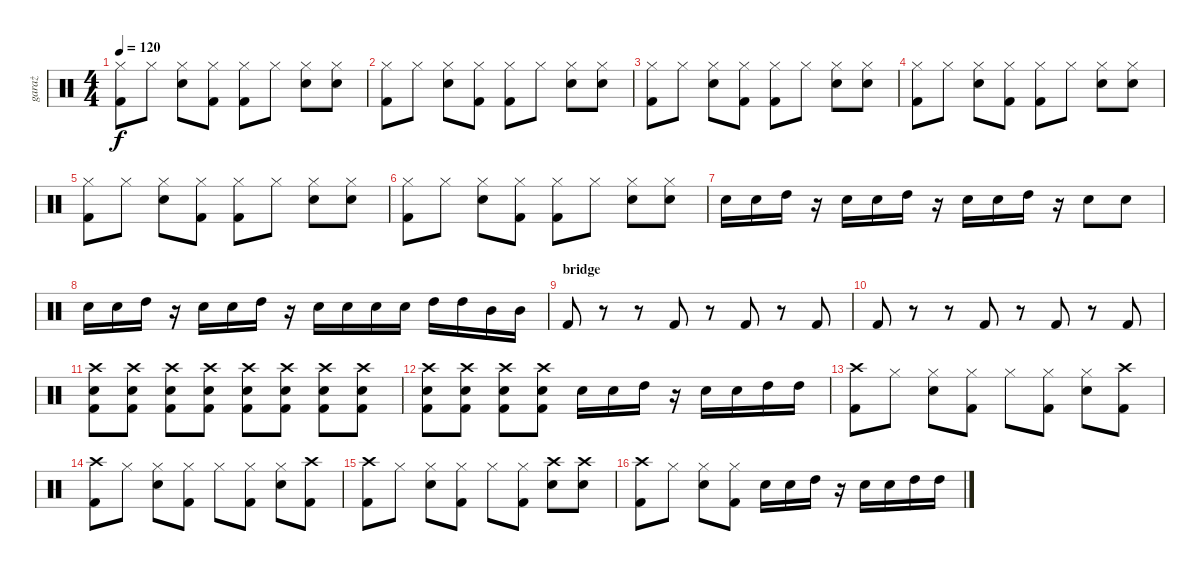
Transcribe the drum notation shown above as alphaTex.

\track ("garaż" "garaż") {instrument percussion}
\staff {score}
\articulation defaults
\ts (4 4)
\tempo 120
\clef neutral
\ks c
("Hi-Hat (closed)" "Kick (hit) 2").8{dy f} "Hi-Hat (closed)".8 ("Hi-Hat (closed)" "Snare (hit) 2").8 ("Hi-Hat (closed)" "Kick (hit) 2").8 ("Hi-Hat (closed)" "Kick (hit) 2").8 "Hi-Hat (closed)".8 ("Hi-Hat (closed)" "Snare (hit) 2").8 ("Hi-Hat (closed)" "Snare (hit) 2").8 |
("Hi-Hat (closed)" "Kick (hit) 2").8 "Hi-Hat (closed)".8 ("Hi-Hat (closed)" "Snare (hit) 2").8 ("Hi-Hat (closed)" "Kick (hit) 2").8 ("Hi-Hat (closed)" "Kick (hit) 2").8 "Hi-Hat (closed)".8 ("Hi-Hat (closed)" "Snare (hit) 2").8 ("Hi-Hat (closed)" "Snare (hit) 2").8 |
("Hi-Hat (closed)" "Kick (hit) 2").8 "Hi-Hat (closed)".8 ("Hi-Hat (closed)" "Snare (hit) 2").8 ("Hi-Hat (closed)" "Kick (hit) 2").8 ("Hi-Hat (closed)" "Kick (hit) 2").8 "Hi-Hat (closed)".8 ("Hi-Hat (closed)" "Snare (hit) 2").8 ("Hi-Hat (closed)" "Snare (hit) 2").8 |
("Hi-Hat (closed)" "Kick (hit) 2").8 "Hi-Hat (closed)".8 ("Hi-Hat (closed)" "Snare (hit) 2").8 ("Hi-Hat (closed)" "Kick (hit) 2").8 ("Hi-Hat (closed)" "Kick (hit) 2").8 "Hi-Hat (closed)".8 ("Hi-Hat (closed)" "Snare (hit) 2").8 ("Hi-Hat (closed)" "Snare (hit) 2").8 |
("Hi-Hat (closed)" "Kick (hit) 2").8 "Hi-Hat (closed)".8 ("Hi-Hat (closed)" "Snare (hit) 2").8 ("Hi-Hat (closed)" "Kick (hit) 2").8 ("Hi-Hat (closed)" "Kick (hit) 2").8 "Hi-Hat (closed)".8 ("Hi-Hat (closed)" "Snare (hit) 2").8 ("Hi-Hat (closed)" "Snare (hit) 2").8 |
("Hi-Hat (closed)" "Kick (hit) 2").8 "Hi-Hat (closed)".8 ("Hi-Hat (closed)" "Snare (hit) 2").8 ("Hi-Hat (closed)" "Kick (hit) 2").8 ("Hi-Hat (closed)" "Kick (hit) 2").8 "Hi-Hat (closed)".8 ("Hi-Hat (closed)" "Snare (hit) 2").8 ("Hi-Hat (closed)" "Snare (hit) 2").8 |
"Snare (hit) 2".16 "Snare (hit) 2".16 "High Tom (hit)".16 r.16 "Snare (hit) 2".16 "Snare (hit) 2".16 "High Tom (hit)".16 r.16 "Snare (hit) 2".16 "Snare (hit) 2".16 "High Tom (hit)".16 r.16 "Snare (hit) 2".8 "Snare (hit) 2".8 |
"Snare (hit) 2".16 "Snare (hit) 2".16 "High Tom (hit)".16 r.16 "Snare (hit) 2".16 "Snare (hit) 2".16 "High Tom (hit)".16 r.16 "Snare (hit) 2".16 "Snare (hit) 2".16 "Snare (hit) 2".16 "Snare (hit) 2".16 "High Tom (hit)".16 "High Tom (hit)".16 "Mid Tom (hit)".16 "Mid Tom (hit)".16 |
\section ("" "bridge")
"Kick (hit) 2".8 r.8 r.8 "Kick (hit) 2".8 r.8 "Kick (hit) 2".8 r.8 "Kick (hit) 2".8 |
"Kick (hit) 2".8 r.8 r.8 "Kick (hit) 2".8 r.8 "Kick (hit) 2".8 r.8 "Kick (hit) 2".8 |
("Crash high (hit)" "Snare (hit) 2" "Kick (hit) 2").8 ("Crash high (hit)" "Snare (hit) 2" "Kick (hit) 2").8 ("Crash high (hit)" "Snare (hit) 2" "Kick (hit) 2").8 ("Crash high (hit)" "Snare (hit) 2" "Kick (hit) 2").8 ("Crash high (hit)" "Snare (hit) 2" "Kick (hit) 2").8 ("Crash high (hit)" "Snare (hit) 2" "Kick (hit) 2").8 ("Crash high (hit)" "Snare (hit) 2" "Kick (hit) 2").8 ("Crash high (hit)" "Snare (hit) 2" "Kick (hit) 2").8 |
("Crash high (hit)" "Snare (hit) 2" "Kick (hit) 2").8 ("Crash high (hit)" "Snare (hit) 2" "Kick (hit) 2").8 ("Crash high (hit)" "Snare (hit) 2" "Kick (hit) 2").8 ("Crash high (hit)" "Snare (hit) 2" "Kick (hit) 2").8 "Snare (hit) 2".16 "Snare (hit) 2".16 "High Tom (hit)".16 r.16 "Snare (hit) 2".16 "Snare (hit) 2".16 "High Tom (hit)".16 "High Tom (hit)".16 |
("Crash high (hit)" "Kick (hit) 2").8 "Hi-Hat (closed)".8 ("Hi-Hat (closed)" "Snare (hit) 2").8 ("Hi-Hat (closed)" "Kick (hit) 2").8 "Hi-Hat (closed)".8 ("Hi-Hat (closed)" "Kick (hit) 2").8 ("Hi-Hat (closed)" "Snare (hit) 2").8 ("Crash high (hit)" "Kick (hit) 2").8 |
("Crash high (hit)" "Kick (hit) 2").8 "Hi-Hat (closed)".8 ("Hi-Hat (closed)" "Snare (hit) 2").8 ("Hi-Hat (closed)" "Kick (hit) 2").8 "Hi-Hat (closed)".8 ("Hi-Hat (closed)" "Kick (hit) 2").8 ("Hi-Hat (closed)" "Snare (hit) 2").8 ("Crash high (hit)" "Kick (hit) 2").8 |
("Crash high (hit)" "Kick (hit) 2").8 "Hi-Hat (closed)".8 ("Hi-Hat (closed)" "Snare (hit) 2").8 ("Hi-Hat (closed)" "Kick (hit) 2").8 "Hi-Hat (closed)".8 ("Hi-Hat (closed)" "Kick (hit) 2").8 ("Crash high (hit)" "Snare (hit) 2").8 ("Crash high (hit)" "Snare (hit) 2").8 |
("Crash high (hit)" "Kick (hit) 2").8 "Hi-Hat (closed)".8 ("Hi-Hat (closed)" "Snare (hit) 2").8 ("Hi-Hat (closed)" "Kick (hit) 2").8 "Snare (hit) 2".16 "Snare (hit) 2".16 "High Tom (hit)".16 r.16 "Snare (hit) 2".16 "Snare (hit) 2".16 "High Tom (hit)".16 "High Tom (hit)".16
